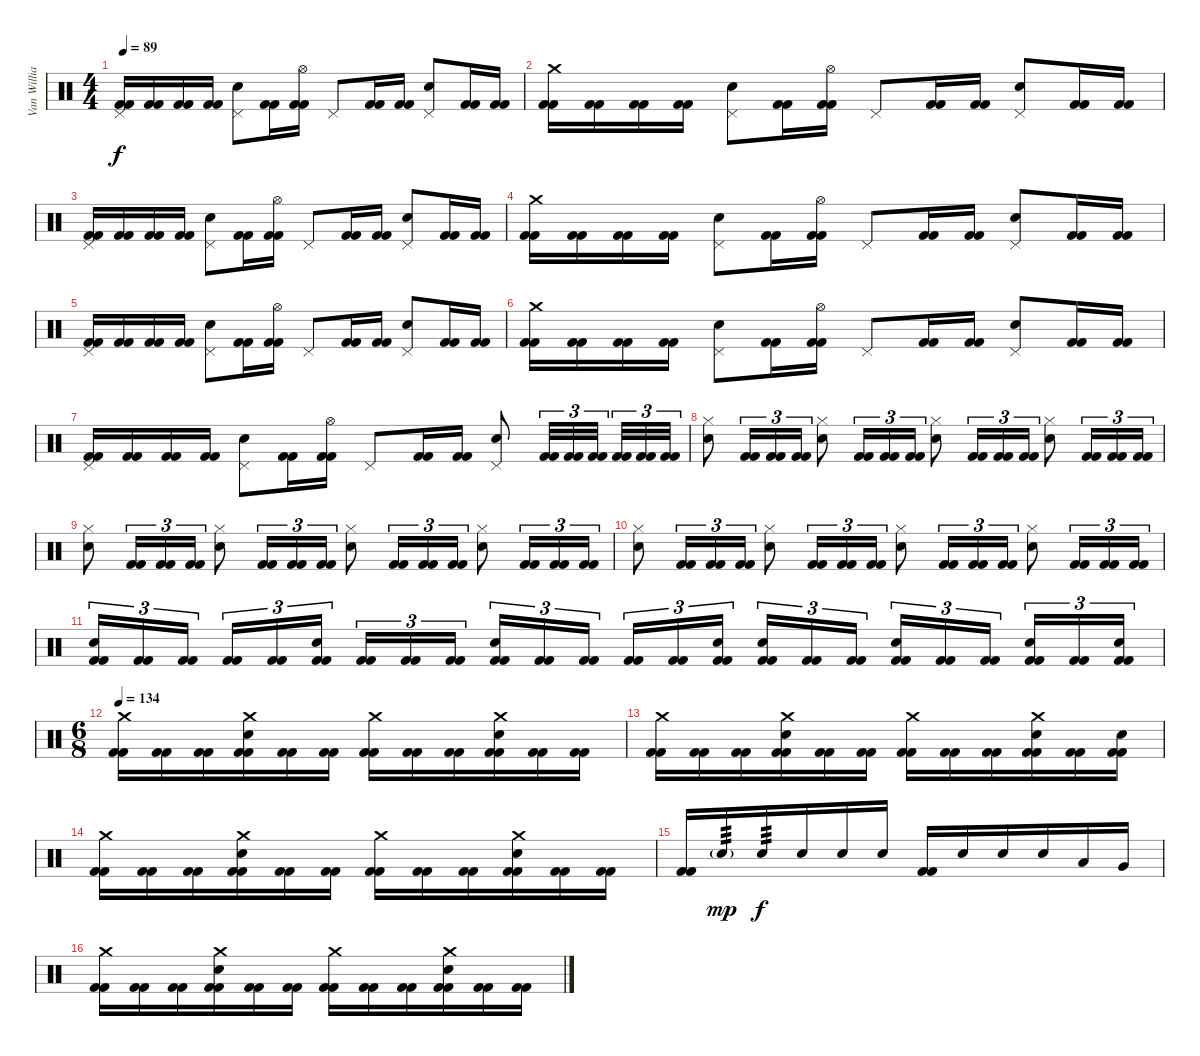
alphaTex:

\track ("Van Williams" "Van Willia") {instrument percussion}
\staff {score}
\articulation defaults
\ts (4 4)
\tempo 89
\clef neutral
\ks c
("Pedal Hi-Hat (hit)" "Kick (hit) 2" "Kick (hit) 2").16{dy f} ("Kick (hit) 2" "Kick (hit) 2").16 ("Kick (hit) 2" "Kick (hit) 2").16 ("Kick (hit) 2" "Kick (hit) 2").16 ("Pedal Hi-Hat (hit)" "Electric Snare (hit)").8 ("Kick (hit) 2" "Kick (hit) 2").16 ("Hi-Hat (open)" "Kick (hit) 2" "Kick (hit) 2").16 "Pedal Hi-Hat (hit)".8 ("Kick (hit) 2" "Kick (hit) 2").16 ("Kick (hit) 2" "Kick (hit) 2").16 ("Pedal Hi-Hat (hit)" "Electric Snare (hit)").8 ("Kick (hit) 2" "Kick (hit) 2").16 ("Kick (hit) 2" "Kick (hit) 2").16 |
("Crash medium (hit)" "Kick (hit) 2" "Kick (hit) 2").16 ("Kick (hit) 2" "Kick (hit) 2").16 ("Kick (hit) 2" "Kick (hit) 2").16 ("Kick (hit) 2" "Kick (hit) 2").16 ("Pedal Hi-Hat (hit)" "Electric Snare (hit)").8 ("Kick (hit) 2" "Kick (hit) 2").16 ("Hi-Hat (open)" "Kick (hit) 2" "Kick (hit) 2").16 "Pedal Hi-Hat (hit)".8 ("Kick (hit) 2" "Kick (hit) 2").16 ("Kick (hit) 2" "Kick (hit) 2").16 ("Pedal Hi-Hat (hit)" "Electric Snare (hit)").8 ("Kick (hit) 2" "Kick (hit) 2").16 ("Kick (hit) 2" "Kick (hit) 2").16 |
("Pedal Hi-Hat (hit)" "Kick (hit) 2" "Kick (hit) 2").16 ("Kick (hit) 2" "Kick (hit) 2").16 ("Kick (hit) 2" "Kick (hit) 2").16 ("Kick (hit) 2" "Kick (hit) 2").16 ("Pedal Hi-Hat (hit)" "Electric Snare (hit)").8 ("Kick (hit) 2" "Kick (hit) 2").16 ("Hi-Hat (open)" "Kick (hit) 2" "Kick (hit) 2").16 "Pedal Hi-Hat (hit)".8 ("Kick (hit) 2" "Kick (hit) 2").16 ("Kick (hit) 2" "Kick (hit) 2").16 ("Pedal Hi-Hat (hit)" "Electric Snare (hit)").8 ("Kick (hit) 2" "Kick (hit) 2").16 ("Kick (hit) 2" "Kick (hit) 2").16 |
("Crash medium (hit)" "Kick (hit) 2" "Kick (hit) 2").16 ("Kick (hit) 2" "Kick (hit) 2").16 ("Kick (hit) 2" "Kick (hit) 2").16 ("Kick (hit) 2" "Kick (hit) 2").16 ("Pedal Hi-Hat (hit)" "Electric Snare (hit)").8 ("Kick (hit) 2" "Kick (hit) 2").16 ("Hi-Hat (open)" "Kick (hit) 2" "Kick (hit) 2").16 "Pedal Hi-Hat (hit)".8 ("Kick (hit) 2" "Kick (hit) 2").16 ("Kick (hit) 2" "Kick (hit) 2").16 ("Pedal Hi-Hat (hit)" "Electric Snare (hit)").8 ("Kick (hit) 2" "Kick (hit) 2").16 ("Kick (hit) 2" "Kick (hit) 2").16 |
("Pedal Hi-Hat (hit)" "Kick (hit) 2" "Kick (hit) 2").16 ("Kick (hit) 2" "Kick (hit) 2").16 ("Kick (hit) 2" "Kick (hit) 2").16 ("Kick (hit) 2" "Kick (hit) 2").16 ("Pedal Hi-Hat (hit)" "Electric Snare (hit)").8 ("Kick (hit) 2" "Kick (hit) 2").16 ("Hi-Hat (open)" "Kick (hit) 2" "Kick (hit) 2").16 "Pedal Hi-Hat (hit)".8 ("Kick (hit) 2" "Kick (hit) 2").16 ("Kick (hit) 2" "Kick (hit) 2").16 ("Pedal Hi-Hat (hit)" "Electric Snare (hit)").8 ("Kick (hit) 2" "Kick (hit) 2").16 ("Kick (hit) 2" "Kick (hit) 2").16 |
("Crash medium (hit)" "Kick (hit) 2" "Kick (hit) 2").16 ("Kick (hit) 2" "Kick (hit) 2").16 ("Kick (hit) 2" "Kick (hit) 2").16 ("Kick (hit) 2" "Kick (hit) 2").16 ("Pedal Hi-Hat (hit)" "Electric Snare (hit)").8 ("Kick (hit) 2" "Kick (hit) 2").16 ("Hi-Hat (open)" "Kick (hit) 2" "Kick (hit) 2").16 "Pedal Hi-Hat (hit)".8 ("Kick (hit) 2" "Kick (hit) 2").16 ("Kick (hit) 2" "Kick (hit) 2").16 ("Pedal Hi-Hat (hit)" "Electric Snare (hit)").8 ("Kick (hit) 2" "Kick (hit) 2").16 ("Kick (hit) 2" "Kick (hit) 2").16 |
("Pedal Hi-Hat (hit)" "Kick (hit) 2" "Kick (hit) 2").16 ("Kick (hit) 2" "Kick (hit) 2").16 ("Kick (hit) 2" "Kick (hit) 2").16 ("Kick (hit) 2" "Kick (hit) 2").16 ("Pedal Hi-Hat (hit)" "Electric Snare (hit)").8 ("Kick (hit) 2" "Kick (hit) 2").16 ("Hi-Hat (open)" "Kick (hit) 2" "Kick (hit) 2").16 "Pedal Hi-Hat (hit)".8 ("Kick (hit) 2" "Kick (hit) 2").16 ("Kick (hit) 2" "Kick (hit) 2").16 ("Pedal Hi-Hat (hit)" "Electric Snare (hit)").8 ("Kick (hit) 2" "Kick (hit) 2").32{tu (3 2)} ("Kick (hit) 2" "Kick (hit) 2").32{tu (3 2)} ("Kick (hit) 2" "Kick (hit) 2").32{tu (3 2) beam splitsecondary} ("Kick (hit) 2" "Kick (hit) 2").32{tu (3 2)} ("Kick (hit) 2" "Kick (hit) 2").32{tu (3 2)} ("Kick (hit) 2" "Kick (hit) 2").32{tu (3 2)} |
("Hi-Hat (closed)" "Electric Snare (hit)").8 ("Kick (hit) 2" "Kick (hit) 2").16{tu (3 2)} ("Kick (hit) 2" "Kick (hit) 2").16{tu (3 2)} ("Kick (hit) 2" "Kick (hit) 2").16{tu (3 2)} ("Hi-Hat (closed)" "Electric Snare (hit)").8 ("Kick (hit) 2" "Kick (hit) 2").16{tu (3 2)} ("Kick (hit) 2" "Kick (hit) 2").16{tu (3 2)} ("Kick (hit) 2" "Kick (hit) 2").16{tu (3 2)} ("Hi-Hat (closed)" "Electric Snare (hit)").8 ("Kick (hit) 2" "Kick (hit) 2").16{tu (3 2)} ("Kick (hit) 2" "Kick (hit) 2").16{tu (3 2)} ("Kick (hit) 2" "Kick (hit) 2").16{tu (3 2)} ("Hi-Hat (closed)" "Electric Snare (hit)").8 ("Kick (hit) 2" "Kick (hit) 2").16{tu (3 2)} ("Kick (hit) 2" "Kick (hit) 2").16{tu (3 2)} ("Kick (hit) 2" "Kick (hit) 2").16{tu (3 2)} |
("Hi-Hat (closed)" "Electric Snare (hit)").8 ("Kick (hit) 2" "Kick (hit) 2").16{tu (3 2)} ("Kick (hit) 2" "Kick (hit) 2").16{tu (3 2)} ("Kick (hit) 2" "Kick (hit) 2").16{tu (3 2)} ("Hi-Hat (closed)" "Electric Snare (hit)").8 ("Kick (hit) 2" "Kick (hit) 2").16{tu (3 2)} ("Kick (hit) 2" "Kick (hit) 2").16{tu (3 2)} ("Kick (hit) 2" "Kick (hit) 2").16{tu (3 2)} ("Hi-Hat (closed)" "Electric Snare (hit)").8 ("Kick (hit) 2" "Kick (hit) 2").16{tu (3 2)} ("Kick (hit) 2" "Kick (hit) 2").16{tu (3 2)} ("Kick (hit) 2" "Kick (hit) 2").16{tu (3 2)} ("Hi-Hat (closed)" "Electric Snare (hit)").8 ("Kick (hit) 2" "Kick (hit) 2").16{tu (3 2)} ("Kick (hit) 2" "Kick (hit) 2").16{tu (3 2)} ("Kick (hit) 2" "Kick (hit) 2").16{tu (3 2)} |
("Hi-Hat (closed)" "Electric Snare (hit)").8 ("Kick (hit) 2" "Kick (hit) 2").16{tu (3 2)} ("Kick (hit) 2" "Kick (hit) 2").16{tu (3 2)} ("Kick (hit) 2" "Kick (hit) 2").16{tu (3 2)} ("Hi-Hat (closed)" "Electric Snare (hit)").8 ("Kick (hit) 2" "Kick (hit) 2").16{tu (3 2)} ("Kick (hit) 2" "Kick (hit) 2").16{tu (3 2)} ("Kick (hit) 2" "Kick (hit) 2").16{tu (3 2)} ("Hi-Hat (closed)" "Electric Snare (hit)").8 ("Kick (hit) 2" "Kick (hit) 2").16{tu (3 2)} ("Kick (hit) 2" "Kick (hit) 2").16{tu (3 2)} ("Kick (hit) 2" "Kick (hit) 2").16{tu (3 2)} ("Hi-Hat (closed)" "Electric Snare (hit)").8 ("Kick (hit) 2" "Kick (hit) 2").16{tu (3 2)} ("Kick (hit) 2" "Kick (hit) 2").16{tu (3 2)} ("Kick (hit) 2" "Kick (hit) 2").16{tu (3 2)} |
("Electric Snare (hit)" "Kick (hit) 2" "Kick (hit) 2").16{tu (3 2)} ("Kick (hit) 2" "Kick (hit) 2").16{tu (3 2)} ("Kick (hit) 2" "Kick (hit) 2").16{tu (3 2) beam splitsecondary} ("Kick (hit) 2" "Kick (hit) 2").16{tu (3 2)} ("Kick (hit) 2" "Kick (hit) 2").16{tu (3 2)} ("Electric Snare (hit)" "Kick (hit) 2" "Kick (hit) 2").16{tu (3 2)} ("Kick (hit) 2" "Kick (hit) 2").16{tu (3 2)} ("Kick (hit) 2" "Kick (hit) 2").16{tu (3 2)} ("Kick (hit) 2" "Kick (hit) 2").16{tu (3 2) beam splitsecondary} ("Electric Snare (hit)" "Kick (hit) 2" "Kick (hit) 2").16{tu (3 2)} ("Kick (hit) 2" "Kick (hit) 2").16{tu (3 2)} ("Kick (hit) 2" "Kick (hit) 2").16{tu (3 2)} ("Kick (hit) 2" "Kick (hit) 2").16{tu (3 2)} ("Kick (hit) 2" "Kick (hit) 2").16{tu (3 2)} ("Electric Snare (hit)" "Kick (hit) 2" "Kick (hit) 2").16{tu (3 2) beam splitsecondary} ("Electric Snare (hit)" "Kick (hit) 2" "Kick (hit) 2").16{tu (3 2)} ("Kick (hit) 2" "Kick (hit) 2").16{tu (3 2)} ("Kick (hit) 2" "Kick (hit) 2").16{tu (3 2)} ("Electric Snare (hit)" "Kick (hit) 2" "Kick (hit) 2").16{tu (3 2)} ("Kick (hit) 2" "Kick (hit) 2").16{tu (3 2)} ("Kick (hit) 2" "Kick (hit) 2").16{tu (3 2) beam splitsecondary} ("Electric Snare (hit)" "Kick (hit) 2" "Kick (hit) 2").16{tu (3 2)} ("Kick (hit) 2" "Kick (hit) 2").16{tu (3 2)} ("Electric Snare (hit)" "Kick (hit) 2" "Kick (hit) 2").16{tu (3 2)} |
\ts (6 8)
\tempo 134
("Crash medium (hit)" "Kick (hit) 2" "Kick (hit) 2").16 ("Kick (hit) 2" "Kick (hit) 2").16 ("Kick (hit) 2" "Kick (hit) 2").16 ("Crash medium (hit)" "Electric Snare (hit)" "Kick (hit) 2" "Kick (hit) 2").16 ("Kick (hit) 2" "Kick (hit) 2").16 ("Kick (hit) 2" "Kick (hit) 2").16 ("Crash medium (hit)" "Kick (hit) 2" "Kick (hit) 2").16 ("Kick (hit) 2" "Kick (hit) 2").16 ("Kick (hit) 2" "Kick (hit) 2").16 ("Crash medium (hit)" "Electric Snare (hit)" "Kick (hit) 2" "Kick (hit) 2").16 ("Kick (hit) 2" "Kick (hit) 2").16 ("Kick (hit) 2" "Kick (hit) 2").16 |
("Crash medium (hit)" "Kick (hit) 2" "Kick (hit) 2").16 ("Kick (hit) 2" "Kick (hit) 2").16 ("Kick (hit) 2" "Kick (hit) 2").16 ("Crash medium (hit)" "Electric Snare (hit)" "Kick (hit) 2" "Kick (hit) 2").16 ("Kick (hit) 2" "Kick (hit) 2").16 ("Kick (hit) 2" "Kick (hit) 2").16 ("Crash medium (hit)" "Kick (hit) 2" "Kick (hit) 2").16 ("Kick (hit) 2" "Kick (hit) 2").16 ("Kick (hit) 2" "Kick (hit) 2").16 ("Crash medium (hit)" "Electric Snare (hit)" "Kick (hit) 2" "Kick (hit) 2").16 ("Kick (hit) 2" "Kick (hit) 2").16 ("Electric Snare (hit)" "Kick (hit) 2" "Kick (hit) 2").16 |
("Crash medium (hit)" "Kick (hit) 2" "Kick (hit) 2").16 ("Kick (hit) 2" "Kick (hit) 2").16 ("Kick (hit) 2" "Kick (hit) 2").16 ("Crash medium (hit)" "Electric Snare (hit)" "Kick (hit) 2" "Kick (hit) 2").16 ("Kick (hit) 2" "Kick (hit) 2").16 ("Kick (hit) 2" "Kick (hit) 2").16 ("Crash medium (hit)" "Kick (hit) 2" "Kick (hit) 2").16 ("Kick (hit) 2" "Kick (hit) 2").16 ("Kick (hit) 2" "Kick (hit) 2").16 ("Crash medium (hit)" "Electric Snare (hit)" "Kick (hit) 2" "Kick (hit) 2").16 ("Kick (hit) 2" "Kick (hit) 2").16 ("Kick (hit) 2" "Kick (hit) 2").16 |
("Kick (hit) 2" "Kick (hit) 2").16 "Electric Snare (hit)"{g}.16{tp 3 dy mp} "Electric Snare (hit)".16{tp 3 dy f} "Electric Snare (hit)".16 "Electric Snare (hit)".16 "Electric Snare (hit)".16 ("Kick (hit) 2" "Kick (hit) 2").16 "Electric Snare (hit)".16 "Electric Snare (hit)".16 "Electric Snare (hit)".16 "Low Tom (hit)".16 "Very Low Tom (hit)".16 |
("Crash medium (hit)" "Kick (hit) 2" "Kick (hit) 2").16 ("Kick (hit) 2" "Kick (hit) 2").16 ("Kick (hit) 2" "Kick (hit) 2").16 ("Crash medium (hit)" "Electric Snare (hit)" "Kick (hit) 2" "Kick (hit) 2").16 ("Kick (hit) 2" "Kick (hit) 2").16 ("Kick (hit) 2" "Kick (hit) 2").16 ("Crash medium (hit)" "Kick (hit) 2" "Kick (hit) 2").16 ("Kick (hit) 2" "Kick (hit) 2").16 ("Kick (hit) 2" "Kick (hit) 2").16 ("Crash medium (hit)" "Electric Snare (hit)" "Kick (hit) 2" "Kick (hit) 2").16 ("Kick (hit) 2" "Kick (hit) 2").16 ("Kick (hit) 2" "Kick (hit) 2").16
